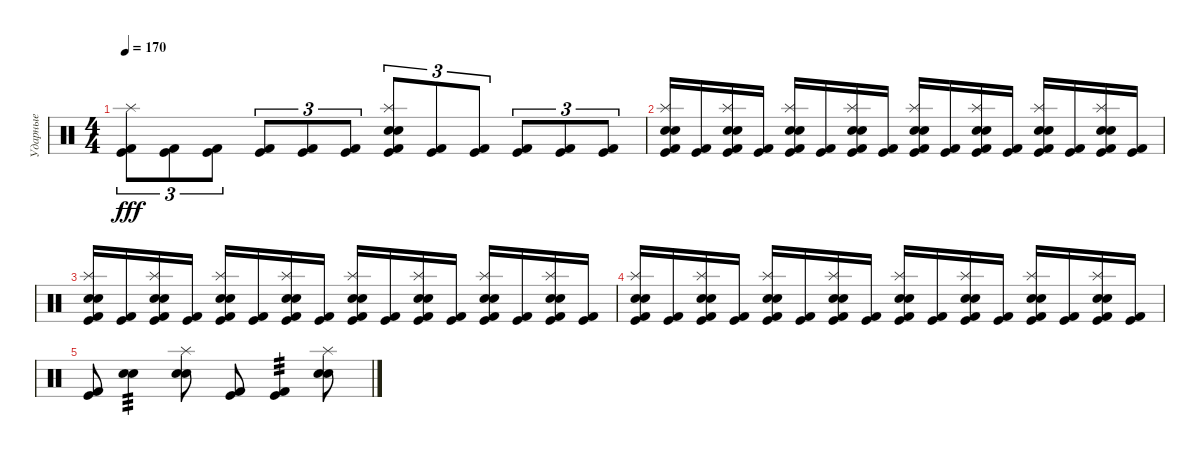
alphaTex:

\track ("Ударные" "Ударные") {instrument percussion}
\staff {score}
\articulation defaults
\ts (4 4)
\tempo 170
\clef neutral
\ks c
("Kick (hit) 2" "Kick (hit)" "Splash (hit)").8{tu (3 2) dy fff} ("Kick (hit) 2" "Kick (hit)").8{tu (3 2)} ("Kick (hit) 2" "Kick (hit)").8{tu (3 2)} ("Kick (hit) 2" "Kick (hit)").8{tu (3 2)} ("Kick (hit) 2" "Kick (hit)").8{tu (3 2)} ("Kick (hit) 2" "Kick (hit)").8{tu (3 2)} ("Kick (hit) 2" "Kick (hit)" "Snare (hit) 2" "Electric Snare (hit)" "Splash (hit)").8{tu (3 2)} ("Kick (hit) 2" "Kick (hit)").8{tu (3 2)} ("Kick (hit) 2" "Kick (hit)").8{tu (3 2)} ("Kick (hit) 2" "Kick (hit)").8{tu (3 2)} ("Kick (hit) 2" "Kick (hit)").8{tu (3 2)} ("Kick (hit) 2" "Kick (hit)").8{tu (3 2)} |
("Kick (hit) 2" "Kick (hit)" "Snare (hit) 2" "Electric Snare (hit)" "Splash (hit)").16 ("Kick (hit)" "Kick (hit) 2").16 ("Kick (hit) 2" "Kick (hit)" "Snare (hit) 2" "Electric Snare (hit)" "Splash (hit)").16 ("Kick (hit)" "Kick (hit) 2").16 ("Kick (hit) 2" "Kick (hit)" "Snare (hit) 2" "Electric Snare (hit)" "Splash (hit)").16 ("Kick (hit)" "Kick (hit) 2").16 ("Kick (hit) 2" "Kick (hit)" "Snare (hit) 2" "Electric Snare (hit)" "Splash (hit)").16 ("Kick (hit)" "Kick (hit) 2").16 ("Kick (hit) 2" "Kick (hit)" "Snare (hit) 2" "Electric Snare (hit)" "Splash (hit)").16 ("Kick (hit)" "Kick (hit) 2").16 ("Kick (hit) 2" "Kick (hit)" "Snare (hit) 2" "Electric Snare (hit)" "Splash (hit)").16 ("Kick (hit)" "Kick (hit) 2").16 ("Kick (hit) 2" "Kick (hit)" "Snare (hit) 2" "Electric Snare (hit)" "Splash (hit)").16 ("Kick (hit)" "Kick (hit) 2").16 ("Kick (hit) 2" "Kick (hit)" "Snare (hit) 2" "Electric Snare (hit)" "Splash (hit)").16 ("Kick (hit)" "Kick (hit) 2").16 |
("Kick (hit) 2" "Kick (hit)" "Snare (hit) 2" "Electric Snare (hit)" "Splash (hit)").16 ("Kick (hit)" "Kick (hit) 2").16 ("Kick (hit) 2" "Kick (hit)" "Snare (hit) 2" "Electric Snare (hit)" "Splash (hit)").16 ("Kick (hit)" "Kick (hit) 2").16 ("Kick (hit) 2" "Kick (hit)" "Snare (hit) 2" "Electric Snare (hit)" "Splash (hit)").16 ("Kick (hit)" "Kick (hit) 2").16 ("Kick (hit) 2" "Kick (hit)" "Snare (hit) 2" "Electric Snare (hit)" "Splash (hit)").16 ("Kick (hit)" "Kick (hit) 2").16 ("Kick (hit) 2" "Kick (hit)" "Snare (hit) 2" "Electric Snare (hit)" "Splash (hit)").16 ("Kick (hit)" "Kick (hit) 2").16 ("Kick (hit) 2" "Kick (hit)" "Snare (hit) 2" "Electric Snare (hit)" "Splash (hit)").16 ("Kick (hit)" "Kick (hit) 2").16 ("Kick (hit) 2" "Kick (hit)" "Snare (hit) 2" "Electric Snare (hit)" "Splash (hit)").16 ("Kick (hit)" "Kick (hit) 2").16 ("Kick (hit) 2" "Kick (hit)" "Snare (hit) 2" "Electric Snare (hit)" "Splash (hit)").16 ("Kick (hit)" "Kick (hit) 2").16 |
("Kick (hit) 2" "Kick (hit)" "Snare (hit) 2" "Electric Snare (hit)" "Splash (hit)").16 ("Kick (hit)" "Kick (hit) 2").16 ("Kick (hit) 2" "Kick (hit)" "Snare (hit) 2" "Electric Snare (hit)" "Splash (hit)").16 ("Kick (hit)" "Kick (hit) 2").16 ("Kick (hit) 2" "Kick (hit)" "Snare (hit) 2" "Electric Snare (hit)" "Splash (hit)").16 ("Kick (hit)" "Kick (hit) 2").16 ("Kick (hit) 2" "Kick (hit)" "Snare (hit) 2" "Electric Snare (hit)" "Splash (hit)").16 ("Kick (hit)" "Kick (hit) 2").16 ("Kick (hit) 2" "Kick (hit)" "Snare (hit) 2" "Electric Snare (hit)" "Splash (hit)").16 ("Kick (hit)" "Kick (hit) 2").16 ("Kick (hit) 2" "Kick (hit)" "Snare (hit) 2" "Electric Snare (hit)" "Splash (hit)").16 ("Kick (hit)" "Kick (hit) 2").16 ("Kick (hit) 2" "Kick (hit)" "Snare (hit) 2" "Electric Snare (hit)" "Splash (hit)").16 ("Kick (hit)" "Kick (hit) 2").16 ("Kick (hit) 2" "Kick (hit)" "Snare (hit) 2" "Electric Snare (hit)" "Splash (hit)").16 ("Kick (hit)" "Kick (hit) 2").16 |
("Kick (hit) 2" "Kick (hit)").8 ("Snare (hit) 2" "Electric Snare (hit)").4{tp 3} ("Snare (hit) 2" "Electric Snare (hit)" "Splash (hit)").8 ("Kick (hit) 2" "Kick (hit)").8 ("Kick (hit) 2" "Kick (hit)").4{tp 3} ("Snare (hit) 2" "Electric Snare (hit)" "Splash (hit)").8
